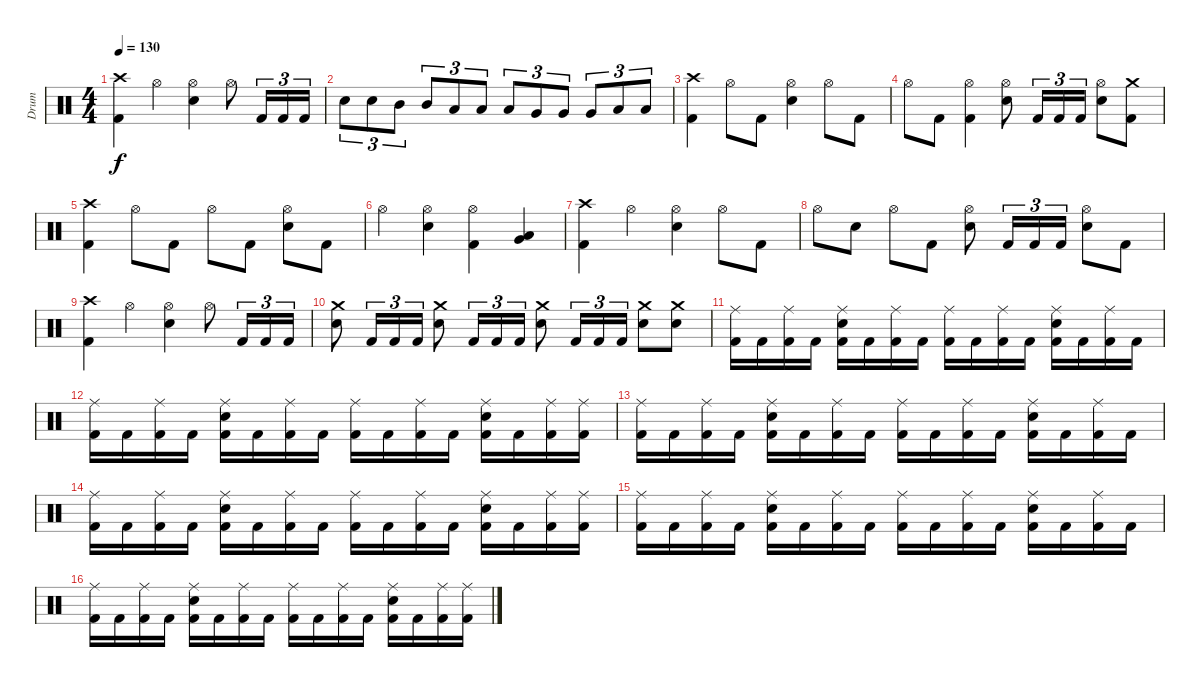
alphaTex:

\track ("Drum" "Drum") {instrument percussion}
\staff {score}
\articulation defaults
\ts (4 4)
\tempo 130
\clef neutral
\ks c
("Kick (hit) 2" "Crash high (hit)").4{dy f} "Hi-Hat (open)".4 ("Electric Snare (hit)" "Hi-Hat (open)").4 "Hi-Hat (open)".8 "Kick (hit) 2".16{tu (3 2)} "Kick (hit) 2".16{tu (3 2)} "Kick (hit) 2".16{tu (3 2)} |
"Electric Snare (hit)".8{tu (3 2)} "Electric Snare (hit)".8{tu (3 2)} "Mid Tom (hit)".8{tu (3 2)} "Mid Tom (hit)".8{tu (3 2)} "Low Tom (hit)".8{tu (3 2)} "Low Tom (hit)".8{tu (3 2)} "Low Tom (hit)".8{tu (3 2)} "Very Low Tom (hit)".8{tu (3 2)} "Very Low Tom (hit)".8{tu (3 2)} "Very Low Tom (hit)".8{tu (3 2)} "Low Tom (hit)".8{tu (3 2)} "Low Tom (hit)".8{tu (3 2)} |
("Kick (hit) 2" "Crash high (hit)").4 "Hi-Hat (open)".8 "Kick (hit) 2".8 ("Electric Snare (hit)" "Hi-Hat (open)").4 "Hi-Hat (open)".8 "Kick (hit) 2".8 |
"Hi-Hat (open)".8 "Kick (hit) 2".8 ("Kick (hit) 2" "Hi-Hat (open)").4 ("Electric Snare (hit)" "Hi-Hat (open)").8 "Kick (hit) 2".16{tu (3 2)} "Kick (hit) 2".16{tu (3 2)} "Kick (hit) 2".16{tu (3 2)} ("Electric Snare (hit)" "Hi-Hat (open)").8 ("Kick (hit) 2" "Crash medium (hit)").8 |
("Kick (hit) 2" "Crash high (hit)").4 "Hi-Hat (open)".8 "Kick (hit) 2".8 "Hi-Hat (open)".8 "Kick (hit) 2".8 ("Electric Snare (hit)" "Hi-Hat (open)").8 "Kick (hit) 2".8 |
"Hi-Hat (open)".4 ("Electric Snare (hit)" "Hi-Hat (open)").4 ("Kick (hit) 2" "Hi-Hat (open)").4 ("Low Tom (hit)" "Very Low Tom (hit)").4 |
("Kick (hit) 2" "Crash high (hit)").4 "Hi-Hat (open)".4 ("Electric Snare (hit)" "Hi-Hat (open)").4 "Hi-Hat (open)".8 "Kick (hit) 2".8 |
"Hi-Hat (open)".8 "Electric Snare (hit)".8 "Hi-Hat (open)".8 "Kick (hit) 2".8 ("Electric Snare (hit)" "Hi-Hat (open)").8 "Kick (hit) 2".16{tu (3 2)} "Kick (hit) 2".16{tu (3 2)} "Kick (hit) 2".16{tu (3 2)} ("Electric Snare (hit)" "Hi-Hat (open)").8 "Kick (hit) 2".8 |
("Kick (hit) 2" "Crash high (hit)").4 "Hi-Hat (open)".4 ("Electric Snare (hit)" "Hi-Hat (open)").4 "Hi-Hat (open)".8 "Kick (hit) 2".16{tu (3 2)} "Kick (hit) 2".16{tu (3 2)} "Kick (hit) 2".16{tu (3 2)} |
("Electric Snare (hit)" "Crash medium (hit)").8 "Kick (hit) 2".16{tu (3 2)} "Kick (hit) 2".16{tu (3 2)} "Kick (hit) 2".16{tu (3 2)} ("Electric Snare (hit)" "Crash medium (hit)").8 "Kick (hit) 2".16{tu (3 2)} "Kick (hit) 2".16{tu (3 2)} "Kick (hit) 2".16{tu (3 2)} ("Electric Snare (hit)" "Crash medium (hit)").8 "Kick (hit) 2".16{tu (3 2)} "Kick (hit) 2".16{tu (3 2)} "Kick (hit) 2".16{tu (3 2)} ("Electric Snare (hit)" "Crash medium (hit)").8 ("Electric Snare (hit)" "Crash medium (hit)").8 |
("Kick (hit) 2" "Ride (middle)").16 "Kick (hit) 2".16 ("Kick (hit) 2" "Ride (middle)").16 "Kick (hit) 2".16 ("Kick (hit) 2" "Electric Snare (hit)" "Ride (middle)").16 "Kick (hit) 2".16 ("Kick (hit) 2" "Ride (middle)").16 "Kick (hit) 2".16 ("Kick (hit) 2" "Ride (middle)").16 "Kick (hit) 2".16 ("Kick (hit) 2" "Ride (middle)").16 "Kick (hit) 2".16 ("Kick (hit) 2" "Electric Snare (hit)" "Ride (middle)").16 "Kick (hit) 2".16 ("Kick (hit) 2" "Ride (middle)").16 "Kick (hit) 2".16 |
("Kick (hit) 2" "Ride (middle)").16 "Kick (hit) 2".16 ("Kick (hit) 2" "Ride (middle)").16 "Kick (hit) 2".16 ("Kick (hit) 2" "Electric Snare (hit)" "Ride (middle)").16 "Kick (hit) 2".16 ("Kick (hit) 2" "Ride (middle)").16 "Kick (hit) 2".16 ("Kick (hit) 2" "Ride (middle)").16 "Kick (hit) 2".16 ("Kick (hit) 2" "Ride (middle)").16 "Kick (hit) 2".16 ("Kick (hit) 2" "Electric Snare (hit)" "Ride (middle)").16 "Kick (hit) 2".16 ("Kick (hit) 2" "Ride (middle)").16 ("Kick (hit) 2" "Ride (middle)").16 |
("Kick (hit) 2" "Ride (middle)").16 "Kick (hit) 2".16 ("Kick (hit) 2" "Ride (middle)").16 "Kick (hit) 2".16 ("Kick (hit) 2" "Electric Snare (hit)" "Ride (middle)").16 "Kick (hit) 2".16 ("Kick (hit) 2" "Ride (middle)").16 "Kick (hit) 2".16 ("Kick (hit) 2" "Ride (middle)").16 "Kick (hit) 2".16 ("Kick (hit) 2" "Ride (middle)").16 "Kick (hit) 2".16 ("Kick (hit) 2" "Electric Snare (hit)" "Ride (middle)").16 "Kick (hit) 2".16 ("Kick (hit) 2" "Ride (middle)").16 "Kick (hit) 2".16 |
("Kick (hit) 2" "Ride (middle)").16 "Kick (hit) 2".16 ("Kick (hit) 2" "Ride (middle)").16 "Kick (hit) 2".16 ("Kick (hit) 2" "Electric Snare (hit)" "Ride (middle)").16 "Kick (hit) 2".16 ("Kick (hit) 2" "Ride (middle)").16 "Kick (hit) 2".16 ("Kick (hit) 2" "Ride (middle)").16 "Kick (hit) 2".16 ("Kick (hit) 2" "Ride (middle)").16 "Kick (hit) 2".16 ("Kick (hit) 2" "Electric Snare (hit)" "Ride (middle)").16 "Kick (hit) 2".16 ("Kick (hit) 2" "Ride (middle)").16 ("Kick (hit) 2" "Ride (middle)").16 |
("Kick (hit) 2" "Ride (middle)").16 "Kick (hit) 2".16 ("Kick (hit) 2" "Ride (middle)").16 "Kick (hit) 2".16 ("Kick (hit) 2" "Electric Snare (hit)" "Ride (middle)").16 "Kick (hit) 2".16 ("Kick (hit) 2" "Ride (middle)").16 "Kick (hit) 2".16 ("Kick (hit) 2" "Ride (middle)").16 "Kick (hit) 2".16 ("Kick (hit) 2" "Ride (middle)").16 "Kick (hit) 2".16 ("Kick (hit) 2" "Electric Snare (hit)" "Ride (middle)").16 "Kick (hit) 2".16 ("Kick (hit) 2" "Ride (middle)").16 "Kick (hit) 2".16 |
("Kick (hit) 2" "Ride (middle)").16 "Kick (hit) 2".16 ("Kick (hit) 2" "Ride (middle)").16 "Kick (hit) 2".16 ("Kick (hit) 2" "Electric Snare (hit)" "Ride (middle)").16 "Kick (hit) 2".16 ("Kick (hit) 2" "Ride (middle)").16 "Kick (hit) 2".16 ("Kick (hit) 2" "Ride (middle)").16 "Kick (hit) 2".16 ("Kick (hit) 2" "Ride (middle)").16 "Kick (hit) 2".16 ("Kick (hit) 2" "Electric Snare (hit)" "Ride (middle)").16 "Kick (hit) 2".16 ("Kick (hit) 2" "Ride (middle)").16 ("Kick (hit) 2" "Ride (middle)").16
